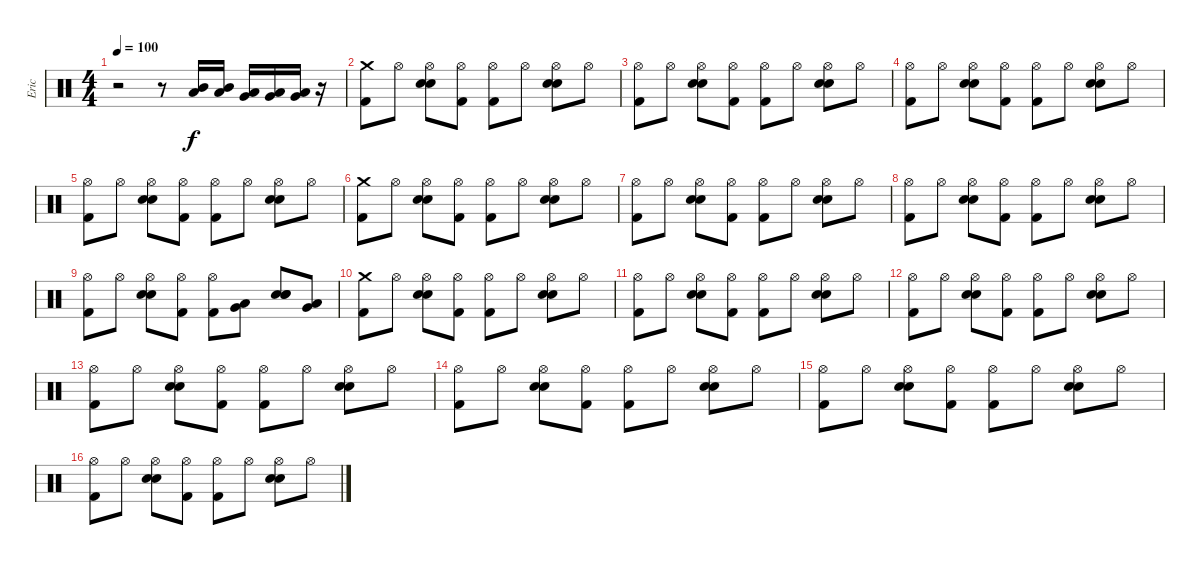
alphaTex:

\track ("Eric" "Eric") {instrument percussion}
\staff {score}
\articulation defaults
\ts (4 4)
\tempo 100
\clef neutral
\ks c
r.2{dy f} r.8 ("Mid Tom (hit)" "Low Tom (hit)").16 ("Mid Tom (hit)" "Low Tom (hit)").16 ("Low Tom (hit)" "Very Low Tom (hit)").16 ("Low Tom (hit)" "Very Low Tom (hit)").16 ("Very Low Tom (hit)" "Low Floor Tom (hit)").16 r.16 |
("Crash medium (hit)" "Kick (hit) 2").8 "Hi-Hat (open)".8 ("Hi-Hat (open)" "Electric Snare (hit)" "Snare (hit) 2").8 ("Hi-Hat (open)" "Kick (hit) 2").8 ("Hi-Hat (open)" "Kick (hit) 2").8 "Hi-Hat (open)".8 ("Hi-Hat (open)" "Electric Snare (hit)" "Snare (hit) 2").8 "Hi-Hat (open)".8 |
("Hi-Hat (open)" "Kick (hit) 2").8 "Hi-Hat (open)".8 ("Hi-Hat (open)" "Electric Snare (hit)" "Snare (hit) 2").8 ("Hi-Hat (open)" "Kick (hit) 2").8 ("Hi-Hat (open)" "Kick (hit) 2").8 "Hi-Hat (open)".8 ("Hi-Hat (open)" "Electric Snare (hit)" "Snare (hit) 2").8 "Hi-Hat (open)".8 |
("Hi-Hat (open)" "Kick (hit) 2").8 "Hi-Hat (open)".8 ("Hi-Hat (open)" "Electric Snare (hit)" "Snare (hit) 2").8 ("Hi-Hat (open)" "Kick (hit) 2").8 ("Hi-Hat (open)" "Kick (hit) 2").8 "Hi-Hat (open)".8 ("Hi-Hat (open)" "Electric Snare (hit)" "Snare (hit) 2").8 "Hi-Hat (open)".8 |
("Hi-Hat (open)" "Kick (hit) 2").8 "Hi-Hat (open)".8 ("Hi-Hat (open)" "Electric Snare (hit)" "Snare (hit) 2").8 ("Hi-Hat (open)" "Kick (hit) 2").8 ("Hi-Hat (open)" "Kick (hit) 2").8 "Hi-Hat (open)".8 ("Hi-Hat (open)" "Electric Snare (hit)" "Snare (hit) 2").8 "Hi-Hat (open)".8 |
("Crash medium (hit)" "Kick (hit) 2").8 "Hi-Hat (open)".8 ("Hi-Hat (open)" "Electric Snare (hit)" "Snare (hit) 2").8 ("Hi-Hat (open)" "Kick (hit) 2").8 ("Hi-Hat (open)" "Kick (hit) 2").8 "Hi-Hat (open)".8 ("Hi-Hat (open)" "Electric Snare (hit)" "Snare (hit) 2").8 "Hi-Hat (open)".8 |
("Hi-Hat (open)" "Kick (hit) 2").8 "Hi-Hat (open)".8 ("Hi-Hat (open)" "Electric Snare (hit)" "Snare (hit) 2").8 ("Hi-Hat (open)" "Kick (hit) 2").8 ("Hi-Hat (open)" "Kick (hit) 2").8 "Hi-Hat (open)".8 ("Hi-Hat (open)" "Electric Snare (hit)" "Snare (hit) 2").8 "Hi-Hat (open)".8 |
("Hi-Hat (open)" "Kick (hit) 2").8 "Hi-Hat (open)".8 ("Hi-Hat (open)" "Electric Snare (hit)" "Snare (hit) 2").8 ("Hi-Hat (open)" "Kick (hit) 2").8 ("Hi-Hat (open)" "Kick (hit) 2").8 "Hi-Hat (open)".8 ("Hi-Hat (open)" "Electric Snare (hit)" "Snare (hit) 2").8 "Hi-Hat (open)".8 |
("Hi-Hat (open)" "Kick (hit) 2").8 "Hi-Hat (open)".8 ("Hi-Hat (open)" "Electric Snare (hit)" "Snare (hit) 2").8 ("Hi-Hat (open)" "Kick (hit) 2").8 ("Hi-Hat (open)" "Kick (hit) 2").8 ("Very Low Tom (hit)" "Low Tom (hit)").8 ("Snare (hit) 2" "Electric Snare (hit)" "Snare (hit) 2").8 ("Very Low Tom (hit)" "Low Floor Tom (hit)").8 |
("Crash medium (hit)" "Kick (hit) 2").8 "Hi-Hat (open)".8 ("Hi-Hat (open)" "Electric Snare (hit)" "Snare (hit) 2").8 ("Hi-Hat (open)" "Kick (hit) 2").8 ("Hi-Hat (open)" "Kick (hit) 2").8 "Hi-Hat (open)".8 ("Hi-Hat (open)" "Electric Snare (hit)" "Snare (hit) 2").8 "Hi-Hat (open)".8 |
("Hi-Hat (open)" "Kick (hit) 2").8 "Hi-Hat (open)".8 ("Hi-Hat (open)" "Electric Snare (hit)" "Snare (hit) 2").8 ("Hi-Hat (open)" "Kick (hit) 2").8 ("Hi-Hat (open)" "Kick (hit) 2").8 "Hi-Hat (open)".8 ("Hi-Hat (open)" "Electric Snare (hit)" "Snare (hit) 2").8 "Hi-Hat (open)".8 |
("Hi-Hat (open)" "Kick (hit) 2").8 "Hi-Hat (open)".8 ("Hi-Hat (open)" "Electric Snare (hit)" "Snare (hit) 2").8 ("Hi-Hat (open)" "Kick (hit) 2").8 ("Hi-Hat (open)" "Kick (hit) 2").8 "Hi-Hat (open)".8 ("Hi-Hat (open)" "Electric Snare (hit)" "Snare (hit) 2").8 "Hi-Hat (open)".8 |
("Hi-Hat (open)" "Kick (hit) 2").8 "Hi-Hat (open)".8 ("Hi-Hat (open)" "Electric Snare (hit)" "Snare (hit) 2").8 ("Hi-Hat (open)" "Kick (hit) 2").8 ("Hi-Hat (open)" "Kick (hit) 2").8 "Hi-Hat (open)".8 ("Hi-Hat (open)" "Electric Snare (hit)" "Snare (hit) 2").8 "Hi-Hat (open)".8 |
("Hi-Hat (open)" "Kick (hit) 2").8 "Hi-Hat (open)".8 ("Hi-Hat (open)" "Electric Snare (hit)" "Snare (hit) 2").8 ("Hi-Hat (open)" "Kick (hit) 2").8 ("Hi-Hat (open)" "Kick (hit) 2").8 "Hi-Hat (open)".8 ("Hi-Hat (open)" "Electric Snare (hit)" "Snare (hit) 2").8 "Hi-Hat (open)".8 |
("Hi-Hat (open)" "Kick (hit) 2").8 "Hi-Hat (open)".8 ("Hi-Hat (open)" "Electric Snare (hit)" "Snare (hit) 2").8 ("Hi-Hat (open)" "Kick (hit) 2").8 ("Hi-Hat (open)" "Kick (hit) 2").8 "Hi-Hat (open)".8 ("Hi-Hat (open)" "Electric Snare (hit)" "Snare (hit) 2").8 "Hi-Hat (open)".8 |
("Hi-Hat (open)" "Kick (hit) 2").8 "Hi-Hat (open)".8 ("Hi-Hat (open)" "Electric Snare (hit)" "Snare (hit) 2").8 ("Hi-Hat (open)" "Kick (hit) 2").8 ("Hi-Hat (open)" "Kick (hit) 2").8 "Hi-Hat (open)".8 ("Hi-Hat (open)" "Electric Snare (hit)" "Snare (hit) 2").8 "Hi-Hat (open)".8
